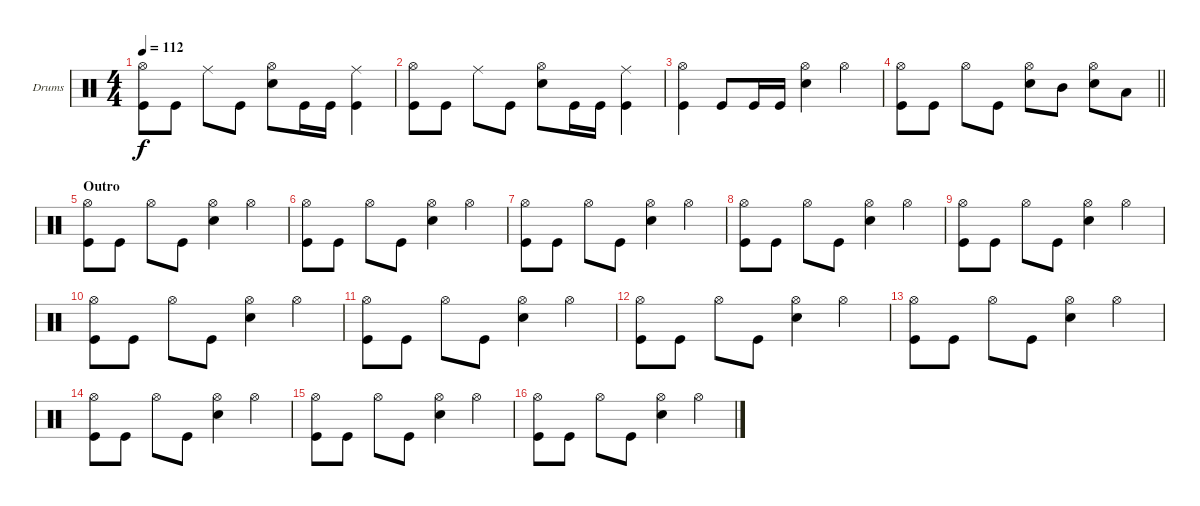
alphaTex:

\bracketExtendMode groupsimilarinstruments
\firstSystemTrackNameOrientation horizontal
\otherSystemsTrackNameOrientation horizontal
\track ("Drumkit" "Drums") {instrument percussion}
\staff {score}
\articulation defaults
\ts (4 4)
\tempo 112
\clef neutral
\ks c
("Kick (hit)" "Hi-Hat (open)").8{dy f} "Kick (hit)".8 "Ride (middle)".8 "Kick (hit)".8 ("Snare (hit) 2" "Hi-Hat (open)").8 "Kick (hit)".16 "Kick (hit)".16 ("Kick (hit)" "Ride (middle)").4 |
("Kick (hit)" "Hi-Hat (open)").8 "Kick (hit)".8 "Ride (middle)".8 "Kick (hit)".8 ("Snare (hit) 2" "Hi-Hat (open)").8 "Kick (hit)".16 "Kick (hit)".16 ("Kick (hit)" "Ride (middle)").4 |
("Hi-Hat (open)" "Kick (hit)").4 "Kick (hit)".8 "Kick (hit)".16 "Kick (hit)".16 ("Hi-Hat (open)" "Snare (hit) 2").4 "Hi-Hat (open)".4 |
\barLineRight lightlight
("Kick (hit)" "Hi-Hat (open)").8 "Kick (hit)".8 "Hi-Hat (open)".8 "Kick (hit)".8 ("Snare (hit) 2" "Hi-Hat (open)").8 "Mid Tom (hit)".8 ("Snare (hit) 2" "Hi-Hat (open)").8 "Low Tom (hit)".8 |
\section ("" "Outro")
("Kick (hit)" "Hi-Hat (open)").8 "Kick (hit)".8 "Hi-Hat (open)".8 "Kick (hit)".8 ("Snare (hit) 2" "Hi-Hat (open)").4 "Hi-Hat (open)".4 |
("Kick (hit)" "Hi-Hat (open)").8 "Kick (hit)".8 "Hi-Hat (open)".8 "Kick (hit)".8 ("Snare (hit) 2" "Hi-Hat (open)").4 "Hi-Hat (open)".4 |
("Kick (hit)" "Hi-Hat (open)").8 "Kick (hit)".8 "Hi-Hat (open)".8 "Kick (hit)".8 ("Snare (hit) 2" "Hi-Hat (open)").4 "Hi-Hat (open)".4 |
("Kick (hit)" "Hi-Hat (open)").8 "Kick (hit)".8 "Hi-Hat (open)".8 "Kick (hit)".8 ("Snare (hit) 2" "Hi-Hat (open)").4 "Hi-Hat (open)".4 |
("Kick (hit)" "Hi-Hat (open)").8 "Kick (hit)".8 "Hi-Hat (open)".8 "Kick (hit)".8 ("Snare (hit) 2" "Hi-Hat (open)").4 "Hi-Hat (open)".4 |
("Kick (hit)" "Hi-Hat (open)").8 "Kick (hit)".8 "Hi-Hat (open)".8 "Kick (hit)".8 ("Snare (hit) 2" "Hi-Hat (open)").4 "Hi-Hat (open)".4 |
("Kick (hit)" "Hi-Hat (open)").8 "Kick (hit)".8 "Hi-Hat (open)".8 "Kick (hit)".8 ("Snare (hit) 2" "Hi-Hat (open)").4 "Hi-Hat (open)".4 |
("Kick (hit)" "Hi-Hat (open)").8 "Kick (hit)".8 "Hi-Hat (open)".8 "Kick (hit)".8 ("Snare (hit) 2" "Hi-Hat (open)").4 "Hi-Hat (open)".4 |
("Kick (hit)" "Hi-Hat (open)").8 "Kick (hit)".8 "Hi-Hat (open)".8 "Kick (hit)".8 ("Snare (hit) 2" "Hi-Hat (open)").4 "Hi-Hat (open)".4 |
("Kick (hit)" "Hi-Hat (open)").8 "Kick (hit)".8 "Hi-Hat (open)".8 "Kick (hit)".8 ("Snare (hit) 2" "Hi-Hat (open)").4 "Hi-Hat (open)".4 |
("Kick (hit)" "Hi-Hat (open)").8 "Kick (hit)".8 "Hi-Hat (open)".8 "Kick (hit)".8 ("Snare (hit) 2" "Hi-Hat (open)").4 "Hi-Hat (open)".4 |
("Kick (hit)" "Hi-Hat (open)").8 "Kick (hit)".8 "Hi-Hat (open)".8 "Kick (hit)".8 ("Snare (hit) 2" "Hi-Hat (open)").4 "Hi-Hat (open)".4
